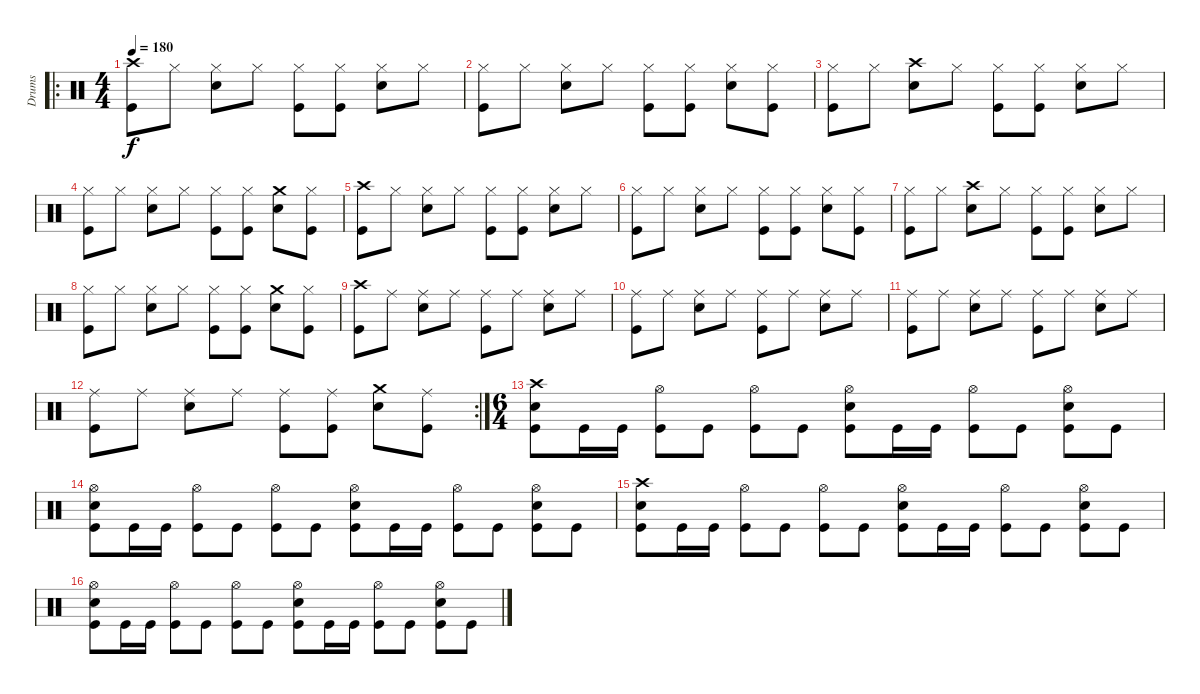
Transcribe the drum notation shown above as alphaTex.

\track ("Drums" "Drums") {instrument percussion}
\staff {score}
\articulation defaults
\ro
\ts (4 4)
\tempo 180
\clef neutral
\ks c
("Crash high (hit)" "Kick (hit)").8{dy f} "Hi-Hat (closed)".8 ("Hi-Hat (closed)" "Snare (hit) 2").8 "Hi-Hat (closed)".8 ("Hi-Hat (closed)" "Kick (hit)").8 ("Hi-Hat (closed)" "Kick (hit)").8 ("Hi-Hat (closed)" "Snare (hit) 2").8 "Hi-Hat (closed)".8 |
("Hi-Hat (closed)" "Kick (hit)").8 "Hi-Hat (closed)".8 ("Hi-Hat (closed)" "Snare (hit) 2").8 "Hi-Hat (closed)".8 ("Hi-Hat (closed)" "Kick (hit)").8 ("Hi-Hat (closed)" "Kick (hit)").8 ("Hi-Hat (closed)" "Snare (hit) 2").8 ("Hi-Hat (closed)" "Kick (hit)").8 |
("Hi-Hat (closed)" "Kick (hit)").8 "Hi-Hat (closed)".8 ("Crash high (hit)" "Snare (hit) 2").8 "Hi-Hat (closed)".8 ("Hi-Hat (closed)" "Kick (hit)").8 ("Hi-Hat (closed)" "Kick (hit)").8 ("Hi-Hat (closed)" "Snare (hit) 2").8 "Hi-Hat (closed)".8 |
("Hi-Hat (closed)" "Kick (hit)").8 "Hi-Hat (closed)".8 ("Hi-Hat (closed)" "Snare (hit) 2").8 "Hi-Hat (closed)".8 ("Hi-Hat (closed)" "Kick (hit)").8 ("Hi-Hat (closed)" "Kick (hit)").8 ("Crash medium (hit)" "Snare (hit) 2").8 ("Hi-Hat (closed)" "Kick (hit)").8 |
("Crash high (hit)" "Kick (hit)").8 "Hi-Hat (closed)".8 ("Hi-Hat (closed)" "Snare (hit) 2").8 "Hi-Hat (closed)".8 ("Hi-Hat (closed)" "Kick (hit)").8 ("Hi-Hat (closed)" "Kick (hit)").8 ("Hi-Hat (closed)" "Snare (hit) 2").8 "Hi-Hat (closed)".8 |
("Hi-Hat (closed)" "Kick (hit)").8 "Hi-Hat (closed)".8 ("Hi-Hat (closed)" "Snare (hit) 2").8 "Hi-Hat (closed)".8 ("Hi-Hat (closed)" "Kick (hit)").8 ("Hi-Hat (closed)" "Kick (hit)").8 ("Hi-Hat (closed)" "Snare (hit) 2").8 ("Hi-Hat (closed)" "Kick (hit)").8 |
("Hi-Hat (closed)" "Kick (hit)").8 "Hi-Hat (closed)".8 ("Crash high (hit)" "Snare (hit) 2").8 "Hi-Hat (closed)".8 ("Hi-Hat (closed)" "Kick (hit)").8 ("Hi-Hat (closed)" "Kick (hit)").8 ("Hi-Hat (closed)" "Snare (hit) 2").8 "Hi-Hat (closed)".8 |
("Hi-Hat (closed)" "Kick (hit)").8 "Hi-Hat (closed)".8 ("Hi-Hat (closed)" "Snare (hit) 2").8 "Hi-Hat (closed)".8 ("Hi-Hat (closed)" "Kick (hit)").8 ("Hi-Hat (closed)" "Kick (hit)").8 ("Crash medium (hit)" "Snare (hit) 2").8 ("Hi-Hat (closed)" "Kick (hit)").8 |
("Crash high (hit)" "Kick (hit)").8 "Ride (middle)".8 ("Ride (middle)" "Snare (hit) 2").8 "Ride (middle)".8 ("Ride (middle)" "Kick (hit)").8 "Ride (middle)".8 ("Ride (middle)" "Snare (hit) 2").8 "Ride (middle)".8 |
("Ride (middle)" "Kick (hit)").8 "Ride (middle)".8 ("Ride (middle)" "Snare (hit) 2").8 "Ride (middle)".8 ("Ride (middle)" "Kick (hit)").8 "Ride (middle)".8 ("Ride (middle)" "Snare (hit) 2").8 "Ride (middle)".8 |
("Ride (middle)" "Kick (hit)").8 "Ride (middle)".8 ("Ride (middle)" "Snare (hit) 2").8 "Ride (middle)".8 ("Ride (middle)" "Kick (hit)").8 "Ride (middle)".8 ("Ride (middle)" "Snare (hit) 2").8 "Ride (middle)".8 |
\rc 2
("Ride (middle)" "Kick (hit)").8 "Ride (middle)".8 ("Ride (middle)" "Snare (hit) 2").8 "Ride (middle)".8 ("Ride (middle)" "Kick (hit)").8 ("Ride (middle)" "Kick (hit)").8 ("Crash medium (hit)" "Snare (hit) 2").8 ("Ride (middle)" "Kick (hit)").8 |
\ts (6 4)
("Crash high (hit)" "Snare (hit) 2" "Kick (hit)").8 "Kick (hit)".16 "Kick (hit)".16 ("Hi-Hat (open)" "Kick (hit)").8 "Kick (hit)".8 ("Hi-Hat (open)" "Kick (hit)").8 "Kick (hit)".8 ("Hi-Hat (open)" "Snare (hit) 2" "Kick (hit)").8 "Kick (hit)".16 "Kick (hit)".16 ("Hi-Hat (open)" "Kick (hit)").8 "Kick (hit)".8 ("Hi-Hat (open)" "Snare (hit) 2" "Kick (hit)").8 "Kick (hit)".8 |
("Hi-Hat (open)" "Snare (hit) 2" "Kick (hit)").8 "Kick (hit)".16 "Kick (hit)".16 ("Hi-Hat (open)" "Kick (hit)").8 "Kick (hit)".8 ("Hi-Hat (open)" "Kick (hit)").8 "Kick (hit)".8 ("Hi-Hat (open)" "Snare (hit) 2" "Kick (hit)").8 "Kick (hit)".16 "Kick (hit)".16 ("Hi-Hat (open)" "Kick (hit)").8 "Kick (hit)".8 ("Hi-Hat (open)" "Snare (hit) 2" "Kick (hit)").8 "Kick (hit)".8 |
("Crash high (hit)" "Snare (hit) 2" "Kick (hit)").8 "Kick (hit)".16 "Kick (hit)".16 ("Hi-Hat (open)" "Kick (hit)").8 "Kick (hit)".8 ("Hi-Hat (open)" "Kick (hit)").8 "Kick (hit)".8 ("Hi-Hat (open)" "Snare (hit) 2" "Kick (hit)").8 "Kick (hit)".16 "Kick (hit)".16 ("Hi-Hat (open)" "Kick (hit)").8 "Kick (hit)".8 ("Hi-Hat (open)" "Snare (hit) 2" "Kick (hit)").8 "Kick (hit)".8 |
("Hi-Hat (open)" "Snare (hit) 2" "Kick (hit)").8 "Kick (hit)".16 "Kick (hit)".16 ("Hi-Hat (open)" "Kick (hit)").8 "Kick (hit)".8 ("Hi-Hat (open)" "Kick (hit)").8 "Kick (hit)".8 ("Hi-Hat (open)" "Snare (hit) 2" "Kick (hit)").8 "Kick (hit)".16 "Kick (hit)".16 ("Hi-Hat (open)" "Kick (hit)").8 "Kick (hit)".8 ("Hi-Hat (open)" "Snare (hit) 2" "Kick (hit)").8 "Kick (hit)".8
